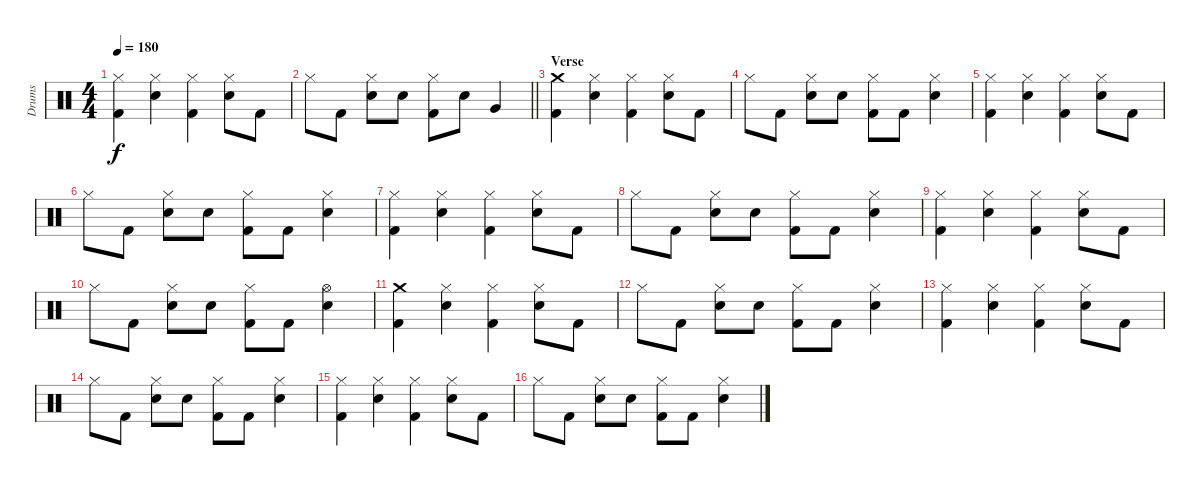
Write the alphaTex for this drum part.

\track ("Drums" "Drums") {instrument percussion}
\staff {score}
\articulation defaults
\ts (4 4)
\tempo 180
\clef neutral
\ks c
("Hi-Hat (closed)" "Kick (hit) 2").4{dy f} ("Hi-Hat (closed)" "Snare (hit) 2").4 ("Hi-Hat (closed)" "Kick (hit) 2").4 ("Hi-Hat (closed)" "Snare (hit) 2").8 "Kick (hit) 2".8 |
\barLineRight lightlight "Hi-Hat (closed)".8 "Kick (hit) 2".8
("Hi-Hat (closed)" "Snare (hit) 2").8 "Snare (hit) 2".8 ("Hi-Hat (closed)" "Kick (hit) 2").8 "Snare (hit) 2".8 "Very Low Tom (hit)".4 |
\section ("" "Verse")
("Crash medium (hit)" "Kick (hit) 2").4 ("Hi-Hat (closed)" "Snare (hit) 2").4 ("Hi-Hat (closed)" "Kick (hit) 2").4 ("Hi-Hat (closed)" "Snare (hit) 2").8 "Kick (hit) 2".8 |
"Hi-Hat (closed)".8 "Kick (hit) 2".8 ("Hi-Hat (closed)" "Snare (hit) 2").8 "Snare (hit) 2".8 ("Hi-Hat (closed)" "Kick (hit) 2").8 "Kick (hit) 2".8 ("Hi-Hat (closed)" "Snare (hit) 2").4 |
("Hi-Hat (closed)" "Kick (hit) 2").4 ("Hi-Hat (closed)" "Snare (hit) 2").4 ("Hi-Hat (closed)" "Kick (hit) 2").4 ("Hi-Hat (closed)" "Snare (hit) 2").8 "Kick (hit) 2".8 |
"Hi-Hat (closed)".8 "Kick (hit) 2".8 ("Hi-Hat (closed)" "Snare (hit) 2").8 "Snare (hit) 2".8 ("Hi-Hat (closed)" "Kick (hit) 2").8 "Kick (hit) 2".8 ("Hi-Hat (closed)" "Snare (hit) 2").4 |
("Hi-Hat (closed)" "Kick (hit) 2").4 ("Hi-Hat (closed)" "Snare (hit) 2").4 ("Hi-Hat (closed)" "Kick (hit) 2").4 ("Hi-Hat (closed)" "Snare (hit) 2").8 "Kick (hit) 2".8 |
"Hi-Hat (closed)".8 "Kick (hit) 2".8 ("Hi-Hat (closed)" "Snare (hit) 2").8 "Snare (hit) 2".8 ("Hi-Hat (closed)" "Kick (hit) 2").8 "Kick (hit) 2".8 ("Hi-Hat (closed)" "Snare (hit) 2").4 |
("Hi-Hat (closed)" "Kick (hit) 2").4 ("Hi-Hat (closed)" "Snare (hit) 2").4 ("Hi-Hat (closed)" "Kick (hit) 2").4 ("Hi-Hat (closed)" "Snare (hit) 2").8 "Kick (hit) 2".8 |
"Hi-Hat (closed)".8 "Kick (hit) 2".8 ("Hi-Hat (closed)" "Snare (hit) 2").8 "Snare (hit) 2".8 ("Hi-Hat (closed)" "Kick (hit) 2").8 "Kick (hit) 2".8 ("Hi-Hat (open)" "Snare (hit) 2").4 |
("Crash medium (hit)" "Kick (hit) 2").4 ("Hi-Hat (closed)" "Snare (hit) 2").4 ("Hi-Hat (closed)" "Kick (hit) 2").4 ("Hi-Hat (closed)" "Snare (hit) 2").8 "Kick (hit) 2".8 |
"Hi-Hat (closed)".8 "Kick (hit) 2".8 ("Hi-Hat (closed)" "Snare (hit) 2").8 "Snare (hit) 2".8 ("Hi-Hat (closed)" "Kick (hit) 2").8 "Kick (hit) 2".8 ("Hi-Hat (closed)" "Snare (hit) 2").4 |
("Hi-Hat (closed)" "Kick (hit) 2").4 ("Hi-Hat (closed)" "Snare (hit) 2").4 ("Hi-Hat (closed)" "Kick (hit) 2").4 ("Hi-Hat (closed)" "Snare (hit) 2").8 "Kick (hit) 2".8 |
"Hi-Hat (closed)".8 "Kick (hit) 2".8 ("Hi-Hat (closed)" "Snare (hit) 2").8 "Snare (hit) 2".8 ("Hi-Hat (closed)" "Kick (hit) 2").8 "Kick (hit) 2".8 ("Hi-Hat (closed)" "Snare (hit) 2").4 |
("Hi-Hat (closed)" "Kick (hit) 2").4 ("Hi-Hat (closed)" "Snare (hit) 2").4 ("Hi-Hat (closed)" "Kick (hit) 2").4 ("Hi-Hat (closed)" "Snare (hit) 2").8 "Kick (hit) 2".8 |
"Hi-Hat (closed)".8 "Kick (hit) 2".8 ("Hi-Hat (closed)" "Snare (hit) 2").8 "Snare (hit) 2".8 ("Hi-Hat (closed)" "Kick (hit) 2").8 "Kick (hit) 2".8 ("Hi-Hat (closed)" "Snare (hit) 2").4
